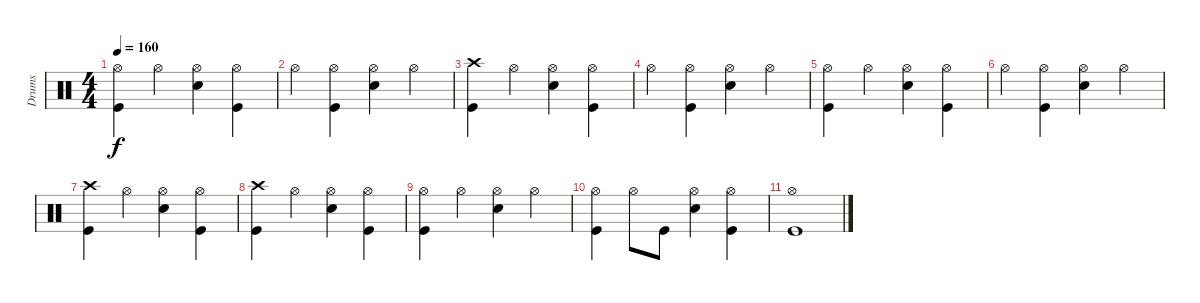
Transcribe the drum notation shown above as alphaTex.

\track ("Drums" "Drums") {instrument percussion}
\staff {score}
\articulation defaults
\ts (4 4)
\tempo 160
\clef neutral
\ks c
("Kick (hit)" "Hi-Hat (open)").4{dy f} "Hi-Hat (open)".4 ("Snare (hit) 2" "Hi-Hat (open)").4 ("Kick (hit)" "Hi-Hat (open)").4 |
"Hi-Hat (open)".4 ("Kick (hit)" "Hi-Hat (open)").4 ("Snare (hit) 2" "Hi-Hat (open)").4 "Hi-Hat (open)".4 |
("Kick (hit)" "Crash high (hit)").4 "Hi-Hat (open)".4 ("Snare (hit) 2" "Hi-Hat (open)").4 ("Kick (hit)" "Hi-Hat (open)").4 |
"Hi-Hat (open)".4 ("Hi-Hat (open)" "Kick (hit)").4 ("Snare (hit) 2" "Hi-Hat (open)").4 "Hi-Hat (open)".4 |
("Kick (hit)" "Hi-Hat (open)").4 "Hi-Hat (open)".4 ("Snare (hit) 2" "Hi-Hat (open)").4 ("Kick (hit)" "Hi-Hat (open)").4 |
"Hi-Hat (open)".4 ("Kick (hit)" "Hi-Hat (open)").4 ("Snare (hit) 2" "Hi-Hat (open)").4 "Hi-Hat (open)".4 |
("Kick (hit)" "Crash high (hit)").4 "Hi-Hat (open)".4 ("Snare (hit) 2" "Hi-Hat (open)").4 ("Kick (hit)" "Hi-Hat (open)").4 |
("Crash high (hit)" "Kick (hit)").4 "Hi-Hat (open)".4 ("Snare (hit) 2" "Hi-Hat (open)").4 ("Hi-Hat (open)" "Kick (hit)").4 |
("Kick (hit)" "Hi-Hat (open)").4 "Hi-Hat (open)".4 ("Hi-Hat (open)" "Snare (hit) 2").4 "Hi-Hat (open)".4 |
("Kick (hit)" "Hi-Hat (open)").4 "Hi-Hat (open)".8 "Kick (hit)".8 ("Snare (hit) 2" "Hi-Hat (open)").4 ("Kick (hit)" "Hi-Hat (open)").4 |
("Kick (hit)" "Hi-Hat (open)").1
